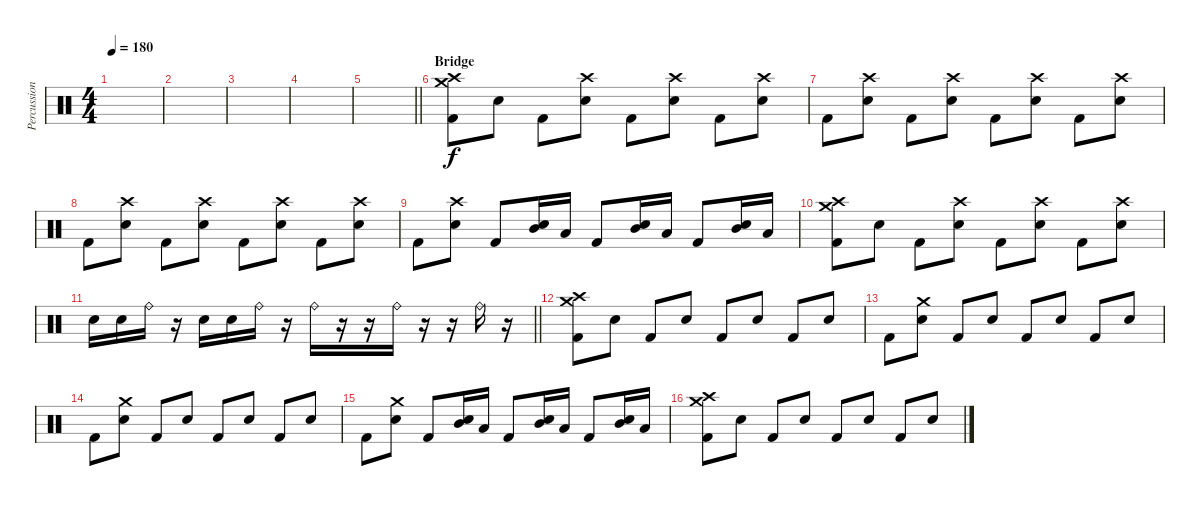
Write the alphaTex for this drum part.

\track ("Percussion" "Percussion") {instrument percussion}
\staff {score}
\articulation defaults
\ts (4 4)
\tempo 180
\clef neutral
\ks c
|
|
|
|
\barLineRight lightlight
|
\section ("" "Bridge")
("Crash high (hit)" "Crash medium (hit)" "Kick (hit) 2").8 "Electric Snare (hit)".8 "Kick (hit) 2".8 ("Crash high (hit)" "Electric Snare (hit)").8 "Kick (hit) 2".8 ("Crash high (hit)" "Electric Snare (hit)").8 "Kick (hit) 2".8 ("Crash high (hit)" "Electric Snare (hit)").8 |
"Kick (hit) 2".8 ("Crash high (hit)" "Electric Snare (hit)").8 "Kick (hit) 2".8 ("Crash high (hit)" "Electric Snare (hit)").8 "Kick (hit) 2".8 ("Crash high (hit)" "Electric Snare (hit)").8 "Kick (hit) 2".8 ("Crash high (hit)" "Electric Snare (hit)").8 |
"Kick (hit) 2".8 ("Crash high (hit)" "Electric Snare (hit)").8 "Kick (hit) 2".8 ("Crash high (hit)" "Electric Snare (hit)").8 "Kick (hit) 2".8 ("Crash high (hit)" "Electric Snare (hit)").8 "Kick (hit) 2".8 ("Crash high (hit)" "Electric Snare (hit)").8 |
"Kick (hit) 2".8 ("Crash high (hit)" "Electric Snare (hit)").8 "Kick (hit) 2".8 ("Mid Tom (hit)" "Electric Snare (hit)").16 "Low Tom (hit)".16 "Kick (hit) 2".8 ("Mid Tom (hit)" "Electric Snare (hit)").16 "Low Tom (hit)".16 "Kick (hit) 2".8 ("Mid Tom (hit)" "Electric Snare (hit)").16 "Low Tom (hit)".16 |
("Crash high (hit)" "Crash medium (hit)" "Kick (hit) 2").8 "Electric Snare (hit)".8 "Kick (hit) 2".8 ("Crash high (hit)" "Electric Snare (hit)").8 "Kick (hit) 2".8 ("Crash high (hit)" "Electric Snare (hit)").8 "Kick (hit) 2".8 ("Crash high (hit)" "Electric Snare (hit)").8 |
\barLineRight lightlight "Electric Snare (hit)".16 "Electric Snare (hit)".16 "Ride (bell)".16
r.16 "Electric Snare (hit)".16 "Electric Snare (hit)".16 "Ride (bell)".16 r.16 "Ride (bell)".16 r.16 r.16 "Ride (bell)".16 r.16 r.16 "Ride (bell)".16 r.16 |
("Crash high (hit)" "Crash medium (hit)" "Kick (hit) 2").8 "Electric Snare (hit)".8 "Kick (hit) 2".8 "Electric Snare (hit)".8 "Kick (hit) 2".8 "Electric Snare (hit)".8 "Kick (hit) 2".8 "Electric Snare (hit)".8 |
"Kick (hit) 2".8 ("Crash medium (hit)" "Electric Snare (hit)").8 "Kick (hit) 2".8 "Electric Snare (hit)".8 "Kick (hit) 2".8 "Electric Snare (hit)".8 "Kick (hit) 2".8 "Electric Snare (hit)".8 |
"Kick (hit) 2".8 ("Crash medium (hit)" "Electric Snare (hit)").8 "Kick (hit) 2".8 "Electric Snare (hit)".8 "Kick (hit) 2".8 "Electric Snare (hit)".8 "Kick (hit) 2".8 "Electric Snare (hit)".8 |
"Kick (hit) 2".8 ("Crash medium (hit)" "Electric Snare (hit)").8 "Kick (hit) 2".8 ("Mid Tom (hit)" "Electric Snare (hit)").16 "Low Tom (hit)".16 "Kick (hit) 2".8 ("Mid Tom (hit)" "Electric Snare (hit)").16 "Low Tom (hit)".16 "Kick (hit) 2".8 ("Mid Tom (hit)" "Electric Snare (hit)").16 "Low Tom (hit)".16 |
("Crash high (hit)" "Crash medium (hit)" "Kick (hit) 2").8 "Electric Snare (hit)".8 "Kick (hit) 2".8 "Electric Snare (hit)".8 "Kick (hit) 2".8 "Electric Snare (hit)".8 "Kick (hit) 2".8 "Electric Snare (hit)".8
